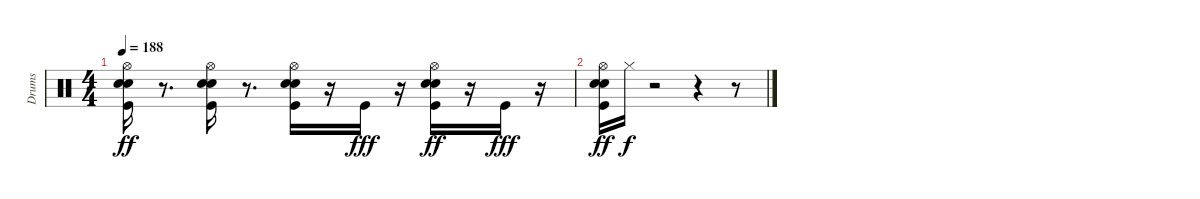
\track ("Drums" "Drums") {instrument percussion}
\staff {score}
\articulation defaults
\ts (4 4)
\tempo 188
\clef neutral
\ks c
("Hi-Hat (open)" "Snare (hit) 2" "Kick (hit)" "Snare (hit) 2").16{dy ff} r.8{d} ("Hi-Hat (open)" "Snare (hit) 2" "Kick (hit)" "Snare (hit) 2").16 r.8{d} ("Hi-Hat (open)" "Snare (hit) 2" "Kick (hit)" "Snare (hit) 2").16 r.16 "Kick (hit)".16{dy fff} r.16 ("Hi-Hat (open)" "Snare (hit) 2" "Kick (hit)" "Snare (hit) 2").16{dy ff} r.16 "Kick (hit)".16{dy fff} r.16 |
("Hi-Hat (open)" "Snare (hit) 2" "Kick (hit)" "Snare (hit) 2").16{dy ff} "Hi-Hat (closed)".16{dy f} r.2 r.4 r.8
